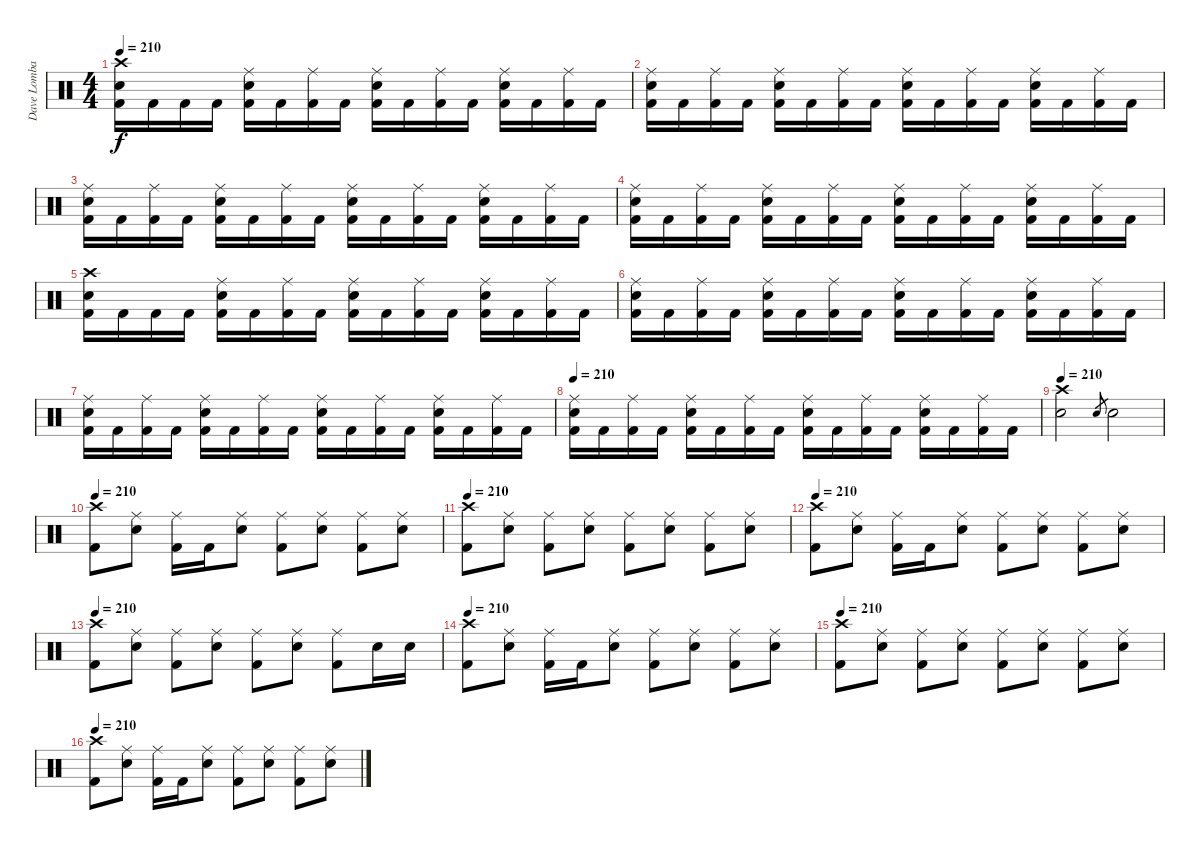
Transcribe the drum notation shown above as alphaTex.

\track ("Dave Lombardo" "Dave Lomba") {instrument percussion}
\staff {score}
\articulation defaults
\ts (4 4)
\tempo 210
\clef neutral
\ks c
("Crash high (hit)" "Snare (hit) 2" "Kick (hit) 2").16{dy f} "Kick (hit) 2".16 "Kick (hit) 2".16 "Kick (hit) 2".16 ("Ride (middle)" "Snare (hit) 2" "Kick (hit) 2").16 "Kick (hit) 2".16 ("Ride (middle)" "Kick (hit) 2").16 "Kick (hit) 2".16 ("Ride (middle)" "Snare (hit) 2" "Kick (hit) 2").16 "Kick (hit) 2".16 ("Ride (middle)" "Kick (hit) 2").16 "Kick (hit) 2".16 ("Ride (middle)" "Snare (hit) 2" "Kick (hit) 2").16 "Kick (hit) 2".16 ("Ride (middle)" "Kick (hit) 2").16 "Kick (hit) 2".16 |
("Ride (middle)" "Snare (hit) 2" "Kick (hit) 2").16 "Kick (hit) 2".16 ("Ride (middle)" "Kick (hit) 2").16 "Kick (hit) 2".16 ("Ride (middle)" "Snare (hit) 2" "Kick (hit) 2").16 "Kick (hit) 2".16 ("Ride (middle)" "Kick (hit) 2").16 "Kick (hit) 2".16 ("Ride (middle)" "Snare (hit) 2" "Kick (hit) 2").16 "Kick (hit) 2".16 ("Ride (middle)" "Kick (hit) 2").16 "Kick (hit) 2".16 ("Ride (middle)" "Snare (hit) 2" "Kick (hit) 2").16 "Kick (hit) 2".16 ("Ride (middle)" "Kick (hit) 2").16 "Kick (hit) 2".16 |
("Ride (middle)" "Snare (hit) 2" "Kick (hit) 2").16 "Kick (hit) 2".16 ("Ride (middle)" "Kick (hit) 2").16 "Kick (hit) 2".16 ("Ride (middle)" "Snare (hit) 2" "Kick (hit) 2").16 "Kick (hit) 2".16 ("Ride (middle)" "Kick (hit) 2").16 "Kick (hit) 2".16 ("Ride (middle)" "Snare (hit) 2" "Kick (hit) 2").16 "Kick (hit) 2".16 ("Ride (middle)" "Kick (hit) 2").16 "Kick (hit) 2".16 ("Ride (middle)" "Snare (hit) 2" "Kick (hit) 2").16 "Kick (hit) 2".16 ("Ride (middle)" "Kick (hit) 2").16 "Kick (hit) 2".16 |
("Ride (middle)" "Snare (hit) 2" "Kick (hit) 2").16 "Kick (hit) 2".16 ("Ride (middle)" "Kick (hit) 2").16 "Kick (hit) 2".16 ("Ride (middle)" "Snare (hit) 2" "Kick (hit) 2").16 "Kick (hit) 2".16 ("Ride (middle)" "Kick (hit) 2").16 "Kick (hit) 2".16 ("Ride (middle)" "Snare (hit) 2" "Kick (hit) 2").16 "Kick (hit) 2".16 ("Ride (middle)" "Kick (hit) 2").16 "Kick (hit) 2".16 ("Ride (middle)" "Snare (hit) 2" "Kick (hit) 2").16 "Kick (hit) 2".16 ("Ride (middle)" "Kick (hit) 2").16 "Kick (hit) 2".16 |
("Crash high (hit)" "Snare (hit) 2" "Kick (hit) 2").16 "Kick (hit) 2".16 "Kick (hit) 2".16 "Kick (hit) 2".16 ("Ride (middle)" "Snare (hit) 2" "Kick (hit) 2").16 "Kick (hit) 2".16 ("Ride (middle)" "Kick (hit) 2").16 "Kick (hit) 2".16 ("Ride (middle)" "Snare (hit) 2" "Kick (hit) 2").16 "Kick (hit) 2".16 ("Ride (middle)" "Kick (hit) 2").16 "Kick (hit) 2".16 ("Ride (middle)" "Snare (hit) 2" "Kick (hit) 2").16 "Kick (hit) 2".16 ("Ride (middle)" "Kick (hit) 2").16 "Kick (hit) 2".16 |
("Ride (middle)" "Snare (hit) 2" "Kick (hit) 2").16 "Kick (hit) 2".16 ("Ride (middle)" "Kick (hit) 2").16 "Kick (hit) 2".16 ("Ride (middle)" "Snare (hit) 2" "Kick (hit) 2").16 "Kick (hit) 2".16 ("Ride (middle)" "Kick (hit) 2").16 "Kick (hit) 2".16 ("Ride (middle)" "Snare (hit) 2" "Kick (hit) 2").16 "Kick (hit) 2".16 ("Ride (middle)" "Kick (hit) 2").16 "Kick (hit) 2".16 ("Ride (middle)" "Snare (hit) 2" "Kick (hit) 2").16 "Kick (hit) 2".16 ("Ride (middle)" "Kick (hit) 2").16 "Kick (hit) 2".16 |
("Ride (middle)" "Snare (hit) 2" "Kick (hit) 2").16 "Kick (hit) 2".16 ("Ride (middle)" "Kick (hit) 2").16 "Kick (hit) 2".16 ("Ride (middle)" "Snare (hit) 2" "Kick (hit) 2").16 "Kick (hit) 2".16 ("Ride (middle)" "Kick (hit) 2").16 "Kick (hit) 2".16 ("Ride (middle)" "Snare (hit) 2" "Kick (hit) 2").16 "Kick (hit) 2".16 ("Ride (middle)" "Kick (hit) 2").16 "Kick (hit) 2".16 ("Ride (middle)" "Snare (hit) 2" "Kick (hit) 2").16 "Kick (hit) 2".16 ("Ride (middle)" "Kick (hit) 2").16 "Kick (hit) 2".16 |
\tempo 210
("Ride (middle)" "Snare (hit) 2" "Kick (hit) 2").16 "Kick (hit) 2".16 ("Ride (middle)" "Kick (hit) 2").16 "Kick (hit) 2".16 ("Ride (middle)" "Snare (hit) 2" "Kick (hit) 2").16 "Kick (hit) 2".16 ("Ride (middle)" "Kick (hit) 2").16 "Kick (hit) 2".16 ("Ride (middle)" "Snare (hit) 2" "Kick (hit) 2").16 "Kick (hit) 2".16 ("Ride (middle)" "Kick (hit) 2").16 "Kick (hit) 2".16 ("Ride (middle)" "Snare (hit) 2" "Kick (hit) 2").16 "Kick (hit) 2".16 ("Ride (middle)" "Kick (hit) 2").16 "Kick (hit) 2".16 |
\tempo 210
("Crash high (hit)" "Snare (hit) 2").2 "Snare (hit) 2".8{gr} "Snare (hit) 2".2 |
\tempo 210
("Crash high (hit)" "Kick (hit) 2").8 ("Ride (middle)" "Snare (hit) 2").8 ("Ride (middle)" "Kick (hit) 2").16 "Kick (hit) 2".16 ("Ride (middle)" "Snare (hit) 2").8 ("Ride (middle)" "Kick (hit) 2").8 ("Ride (middle)" "Snare (hit) 2").8 ("Ride (middle)" "Kick (hit) 2").8 ("Ride (middle)" "Snare (hit) 2").8 |
\tempo 210
("Crash high (hit)" "Kick (hit) 2").8 ("Ride (middle)" "Snare (hit) 2").8 ("Ride (middle)" "Kick (hit) 2").8 ("Ride (middle)" "Snare (hit) 2").8 ("Ride (middle)" "Kick (hit) 2").8 ("Ride (middle)" "Snare (hit) 2").8 ("Ride (middle)" "Kick (hit) 2").8 ("Ride (middle)" "Snare (hit) 2").8 |
\tempo 210
("Crash high (hit)" "Kick (hit) 2").8 ("Ride (middle)" "Snare (hit) 2").8 ("Ride (middle)" "Kick (hit) 2").16 "Kick (hit) 2".16 ("Ride (middle)" "Snare (hit) 2").8 ("Ride (middle)" "Kick (hit) 2").8 ("Ride (middle)" "Snare (hit) 2").8 ("Ride (middle)" "Kick (hit) 2").8 ("Ride (middle)" "Snare (hit) 2").8 |
\tempo 210
("Crash high (hit)" "Kick (hit) 2").8 ("Ride (middle)" "Snare (hit) 2").8 ("Ride (middle)" "Kick (hit) 2").8 ("Ride (middle)" "Snare (hit) 2").8 ("Ride (middle)" "Kick (hit) 2").8 ("Ride (middle)" "Snare (hit) 2").8 ("Ride (middle)" "Kick (hit) 2").8 "Snare (hit) 2".16 "Snare (hit) 2".16 |
\tempo 210
("Crash high (hit)" "Kick (hit) 2").8 ("Ride (middle)" "Snare (hit) 2").8 ("Ride (middle)" "Kick (hit) 2").16 "Kick (hit) 2".16 ("Ride (middle)" "Snare (hit) 2").8 ("Ride (middle)" "Kick (hit) 2").8 ("Ride (middle)" "Snare (hit) 2").8 ("Ride (middle)" "Kick (hit) 2").8 ("Ride (middle)" "Snare (hit) 2").8 |
\tempo 210
("Crash high (hit)" "Kick (hit) 2").8 ("Ride (middle)" "Snare (hit) 2").8 ("Ride (middle)" "Kick (hit) 2").8 ("Ride (middle)" "Snare (hit) 2").8 ("Ride (middle)" "Kick (hit) 2").8 ("Ride (middle)" "Snare (hit) 2").8 ("Ride (middle)" "Kick (hit) 2").8 ("Ride (middle)" "Snare (hit) 2").8 |
\tempo 210
("Crash high (hit)" "Kick (hit) 2").8 ("Ride (middle)" "Snare (hit) 2").8 ("Ride (middle)" "Kick (hit) 2").16 "Kick (hit) 2".16 ("Ride (middle)" "Snare (hit) 2").8 ("Ride (middle)" "Kick (hit) 2").8 ("Ride (middle)" "Snare (hit) 2").8 ("Ride (middle)" "Kick (hit) 2").8 ("Ride (middle)" "Snare (hit) 2").8
